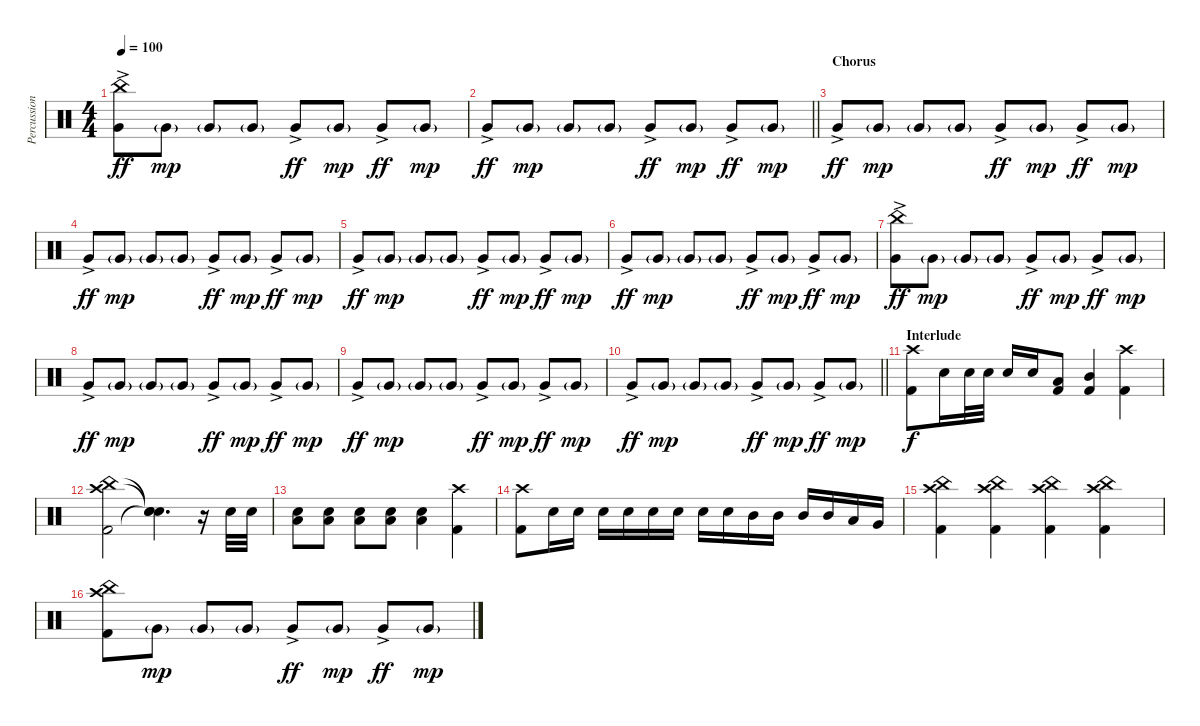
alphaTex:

\track ("Percussion" "Percussion") {instrument percussion}
\staff {score}
\articulation defaults
\ts (4 4)
\tempo 100
\clef neutral
\ks c
("China (hit)" "Very Low Tom (hit)"{ac}).8{dy ff} "Very Low Tom (hit)"{g}.8{dy mp} "Very Low Tom (hit)"{g}.8 "Very Low Tom (hit)"{g}.8 "Very Low Tom (hit)"{ac}.8{dy ff} "Very Low Tom (hit)"{g}.8{dy mp} "Very Low Tom (hit)"{ac}.8{dy ff} "Very Low Tom (hit)"{g}.8{dy mp} |
\barLineRight lightlight "Very Low Tom (hit)"{ac}.8{dy ff} "Very Low Tom (hit)"{g}.8{dy mp} "Very Low Tom (hit)"{g}.8 "Very Low Tom (hit)"{g}.8 "Very Low Tom (hit)"{ac}.8{dy ff} "Very Low Tom (hit)"{g}.8{dy mp} "Very Low Tom (hit)"{ac}.8{dy ff} "Very Low Tom (hit)"{g}.8{dy mp}
|
\section ("" "Chorus")
"Very Low Tom (hit)"{ac}.8{dy ff} "Very Low Tom (hit)"{g}.8{dy mp} "Very Low Tom (hit)"{g}.8 "Very Low Tom (hit)"{g}.8 "Very Low Tom (hit)"{ac}.8{dy ff} "Very Low Tom (hit)"{g}.8{dy mp} "Very Low Tom (hit)"{ac}.8{dy ff} "Very Low Tom (hit)"{g}.8{dy mp} |
"Very Low Tom (hit)"{ac}.8{dy ff} "Very Low Tom (hit)"{g}.8{dy mp} "Very Low Tom (hit)"{g}.8 "Very Low Tom (hit)"{g}.8 "Very Low Tom (hit)"{ac}.8{dy ff} "Very Low Tom (hit)"{g}.8{dy mp} "Very Low Tom (hit)"{ac}.8{dy ff} "Very Low Tom (hit)"{g}.8{dy mp} |
"Very Low Tom (hit)"{ac}.8{dy ff} "Very Low Tom (hit)"{g}.8{dy mp} "Very Low Tom (hit)"{g}.8 "Very Low Tom (hit)"{g}.8 "Very Low Tom (hit)"{ac}.8{dy ff} "Very Low Tom (hit)"{g}.8{dy mp} "Very Low Tom (hit)"{ac}.8{dy ff} "Very Low Tom (hit)"{g}.8{dy mp} |
"Very Low Tom (hit)"{ac}.8{dy ff} "Very Low Tom (hit)"{g}.8{dy mp} "Very Low Tom (hit)"{g}.8 "Very Low Tom (hit)"{g}.8 "Very Low Tom (hit)"{ac}.8{dy ff} "Very Low Tom (hit)"{g}.8{dy mp} "Very Low Tom (hit)"{ac}.8{dy ff} "Very Low Tom (hit)"{g}.8{dy mp} |
("China (hit)" "Very Low Tom (hit)"{ac}).8{dy ff} "Very Low Tom (hit)"{g}.8{dy mp} "Very Low Tom (hit)"{g}.8 "Very Low Tom (hit)"{g}.8 "Very Low Tom (hit)"{ac}.8{dy ff} "Very Low Tom (hit)"{g}.8{dy mp} "Very Low Tom (hit)"{ac}.8{dy ff} "Very Low Tom (hit)"{g}.8{dy mp} |
"Very Low Tom (hit)"{ac}.8{dy ff} "Very Low Tom (hit)"{g}.8{dy mp} "Very Low Tom (hit)"{g}.8 "Very Low Tom (hit)"{g}.8 "Very Low Tom (hit)"{ac}.8{dy ff} "Very Low Tom (hit)"{g}.8{dy mp} "Very Low Tom (hit)"{ac}.8{dy ff} "Very Low Tom (hit)"{g}.8{dy mp} |
"Very Low Tom (hit)"{ac}.8{dy ff} "Very Low Tom (hit)"{g}.8{dy mp} "Very Low Tom (hit)"{g}.8 "Very Low Tom (hit)"{g}.8 "Very Low Tom (hit)"{ac}.8{dy ff} "Very Low Tom (hit)"{g}.8{dy mp} "Very Low Tom (hit)"{ac}.8{dy ff} "Very Low Tom (hit)"{g}.8{dy mp} |
\barLineRight lightlight "Very Low Tom (hit)"{ac}.8{dy ff} "Very Low Tom (hit)"{g}.8{dy mp} "Very Low Tom (hit)"{g}.8 "Very Low Tom (hit)"{g}.8 "Very Low Tom (hit)"{ac}.8{dy ff} "Very Low Tom (hit)"{g}.8{dy mp} "Very Low Tom (hit)"{ac}.8{dy ff} "Very Low Tom (hit)"{g}.8{dy mp}
|
\section ("" "Interlude")
("Crash high (hit)" "Kick (hit) 2").8{dy f} "Snare (hit) 2".16 "Snare (hit) 2".32 "Snare (hit) 2".32 "Snare (hit) 2".16 "Snare (hit) 2".16 ("Low Tom (hit)" "Kick (hit) 2").8 ("Mid Tom (hit)" "Kick (hit) 2").4 ("Crash high (hit)" "Kick (hit) 2").4 |
("Crash high (hit)" "China (hit)" "Kick (hit) 2").2 ("Snare (hit)"{t} "Snare (hit)"{t} "Snare (hit)"{t}).4{d} r.16 "Snare (hit) 2".32 "Snare (hit) 2".32 |
("Low Tom (hit)" "Snare (hit) 2").8 ("Low Tom (hit)" "Snare (hit) 2").8 ("Low Tom (hit)" "Snare (hit) 2").8 ("Low Tom (hit)" "Snare (hit) 2").8 ("Low Tom (hit)" "Snare (hit) 2").4 ("Crash high (hit)" "Kick (hit) 2").4 |
("Crash high (hit)" "Kick (hit) 2").8 "Snare (hit) 2".16 "Snare (hit) 2".16 "Snare (hit) 2".16 "Snare (hit) 2".16 "Snare (hit) 2".16 "Snare (hit) 2".16 "Snare (hit) 2".16 "Snare (hit) 2".16 "Mid Tom (hit)".16 "Mid Tom (hit)".16 "Mid Tom (hit)".16 "Mid Tom (hit)".16 "Low Tom (hit)".16 "Very Low Tom (hit)".16 |
("Crash high (hit)" "China (hit)" "Kick (hit) 2").4 ("Crash high (hit)" "China (hit)" "Kick (hit) 2").4 ("Crash high (hit)" "China (hit)" "Kick (hit) 2").4 ("Crash high (hit)" "China (hit)" "Kick (hit) 2").4 |
("China (hit)" "Crash high (hit)" "Kick (hit) 2").8 "Very Low Tom (hit)"{g}.8{dy mp} "Very Low Tom (hit)"{g}.8 "Very Low Tom (hit)"{g}.8 "Very Low Tom (hit)"{ac}.8{dy ff} "Very Low Tom (hit)"{g}.8{dy mp} "Very Low Tom (hit)"{ac}.8{dy ff} "Very Low Tom (hit)"{g}.8{dy mp}
